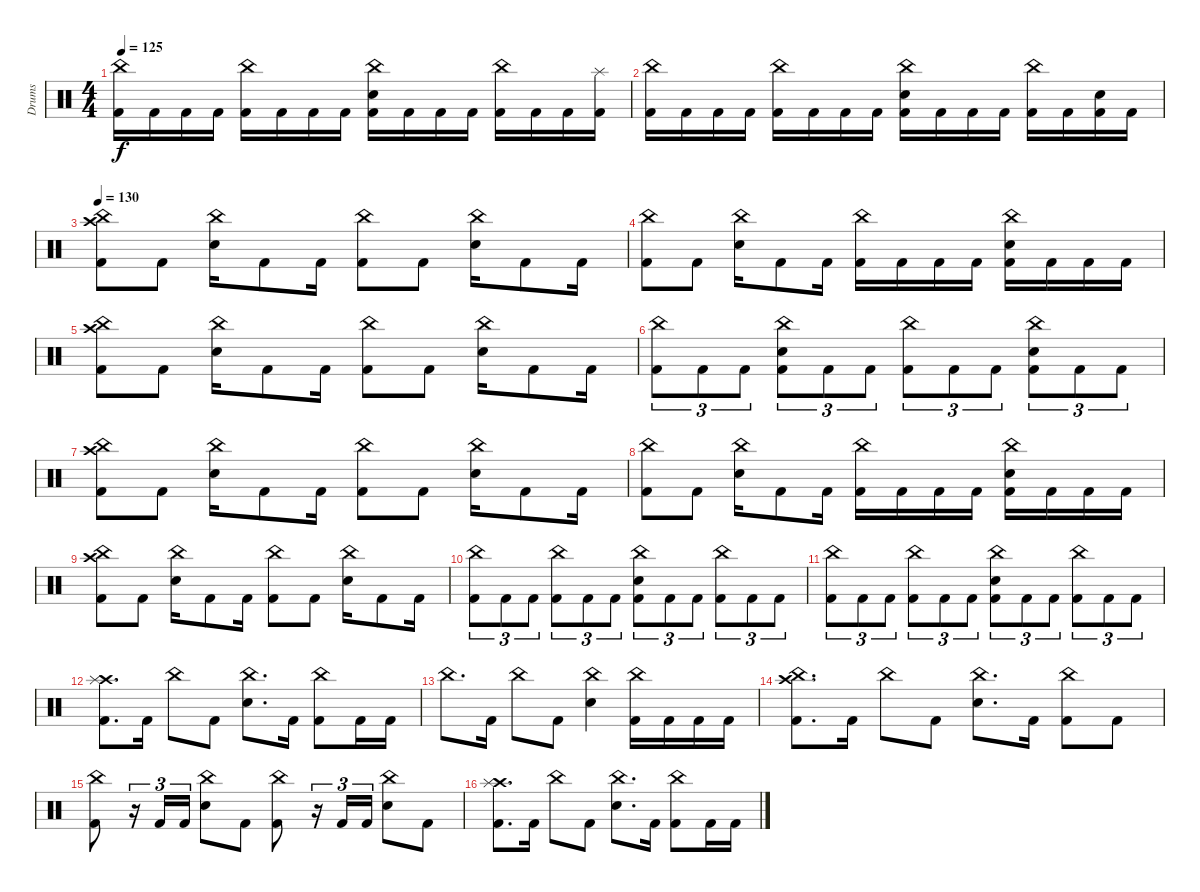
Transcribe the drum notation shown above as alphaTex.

\track ("Drums" "Drums") {instrument percussion}
\staff {score}
\articulation defaults
\ts (4 4)
\tempo 125
\clef neutral
\ks c
("China (hit)" "Kick (hit) 2").16{dy f} "Kick (hit) 2".16 "Kick (hit) 2".16 "Kick (hit) 2".16 ("China (hit)" "Kick (hit) 2").16 "Kick (hit) 2".16 "Kick (hit) 2".16 "Kick (hit) 2".16 ("China (hit)" "Electric Snare (hit)" "Kick (hit) 2").16 "Kick (hit) 2".16 "Kick (hit) 2".16 "Kick (hit) 2".16 ("China (hit)" "Kick (hit) 2").16 "Kick (hit) 2".16 "Kick (hit) 2".16 ("Splash (hit)" "Kick (hit) 2").16 |
("China (hit)" "Kick (hit) 2").16 "Kick (hit) 2".16 "Kick (hit) 2".16 "Kick (hit) 2".16 ("China (hit)" "Kick (hit) 2").16 "Kick (hit) 2".16 "Kick (hit) 2".16 "Kick (hit) 2".16 ("China (hit)" "Electric Snare (hit)" "Kick (hit) 2").16 "Kick (hit) 2".16 "Kick (hit) 2".16 "Kick (hit) 2".16 ("China (hit)" "Kick (hit) 2").16 "Kick (hit) 2".16 ("Electric Snare (hit)" "Kick (hit) 2").16 "Kick (hit) 2".16 |
\tempo 130
("China (hit)" "Crash high (hit)" "Kick (hit) 2").8 "Kick (hit) 2".8 ("China (hit)" "Electric Snare (hit)").16 "Kick (hit) 2".8 "Kick (hit) 2".16 ("China (hit)" "Kick (hit) 2").8 "Kick (hit) 2".8 ("China (hit)" "Electric Snare (hit)").16 "Kick (hit) 2".8 "Kick (hit) 2".16 |
("China (hit)" "Kick (hit) 2").8 "Kick (hit) 2".8 ("China (hit)" "Electric Snare (hit)").16 "Kick (hit) 2".8 "Kick (hit) 2".16 ("China (hit)" "Kick (hit) 2").16 "Kick (hit) 2".16 "Kick (hit) 2".16 "Kick (hit) 2".16 ("China (hit)" "Electric Snare (hit)" "Kick (hit) 2").16 "Kick (hit) 2".16 "Kick (hit) 2".16 "Kick (hit) 2".16 |
("China (hit)" "Crash high (hit)" "Kick (hit) 2").8 "Kick (hit) 2".8 ("China (hit)" "Electric Snare (hit)").16 "Kick (hit) 2".8 "Kick (hit) 2".16 ("China (hit)" "Kick (hit) 2").8 "Kick (hit) 2".8 ("China (hit)" "Electric Snare (hit)").16 "Kick (hit) 2".8 "Kick (hit) 2".16 |
("China (hit)" "Kick (hit) 2").8{tu (3 2)} "Kick (hit) 2".8{tu (3 2)} "Kick (hit) 2".8{tu (3 2)} ("China (hit)" "Electric Snare (hit)" "Kick (hit) 2").8{tu (3 2)} "Kick (hit) 2".8{tu (3 2)} "Kick (hit) 2".8{tu (3 2)} ("China (hit)" "Kick (hit) 2").8{tu (3 2)} "Kick (hit) 2".8{tu (3 2)} "Kick (hit) 2".8{tu (3 2)} ("China (hit)" "Electric Snare (hit)" "Kick (hit) 2").8{tu (3 2)} "Kick (hit) 2".8{tu (3 2)} "Kick (hit) 2".8{tu (3 2)} |
("China (hit)" "Crash high (hit)" "Kick (hit) 2").8 "Kick (hit) 2".8 ("China (hit)" "Electric Snare (hit)").16 "Kick (hit) 2".8 "Kick (hit) 2".16 ("China (hit)" "Kick (hit) 2").8 "Kick (hit) 2".8 ("China (hit)" "Electric Snare (hit)").16 "Kick (hit) 2".8 "Kick (hit) 2".16 |
("China (hit)" "Kick (hit) 2").8 "Kick (hit) 2".8 ("China (hit)" "Electric Snare (hit)").16 "Kick (hit) 2".8 "Kick (hit) 2".16 ("China (hit)" "Kick (hit) 2").16 "Kick (hit) 2".16 "Kick (hit) 2".16 "Kick (hit) 2".16 ("China (hit)" "Electric Snare (hit)" "Kick (hit) 2").16 "Kick (hit) 2".16 "Kick (hit) 2".16 "Kick (hit) 2".16 |
("China (hit)" "Crash high (hit)" "Kick (hit) 2").8 "Kick (hit) 2".8 ("China (hit)" "Electric Snare (hit)").16 "Kick (hit) 2".8 "Kick (hit) 2".16 ("China (hit)" "Kick (hit) 2").8 "Kick (hit) 2".8 ("China (hit)" "Electric Snare (hit)").16 "Kick (hit) 2".8 "Kick (hit) 2".16 |
("China (hit)" "Kick (hit) 2").8{tu (3 2)} "Kick (hit) 2".8{tu (3 2)} "Kick (hit) 2".8{tu (3 2)} ("China (hit)" "Kick (hit) 2").8{tu (3 2)} "Kick (hit) 2".8{tu (3 2)} "Kick (hit) 2".8{tu (3 2)} ("China (hit)" "Electric Snare (hit)" "Kick (hit) 2").8{tu (3 2)} "Kick (hit) 2".8{tu (3 2)} "Kick (hit) 2".8{tu (3 2)} ("China (hit)" "Kick (hit) 2").8{tu (3 2)} "Kick (hit) 2".8{tu (3 2)} "Kick (hit) 2".8{tu (3 2)} |
("China (hit)" "Kick (hit) 2").8{tu (3 2)} "Kick (hit) 2".8{tu (3 2)} "Kick (hit) 2".8{tu (3 2)} ("China (hit)" "Kick (hit) 2").8{tu (3 2)} "Kick (hit) 2".8{tu (3 2)} "Kick (hit) 2".8{tu (3 2)} ("China (hit)" "Electric Snare (hit)" "Kick (hit) 2").8{tu (3 2)} "Kick (hit) 2".8{tu (3 2)} "Kick (hit) 2".8{tu (3 2)} ("China (hit)" "Kick (hit) 2").8{tu (3 2)} "Kick (hit) 2".8{tu (3 2)} "Kick (hit) 2".8{tu (3 2)} |
("Crash high (hit)" "Splash (hit)" "Kick (hit) 2").8{d} "Kick (hit) 2".16 "China (hit)".8 "Kick (hit) 2".8 ("China (hit)" "Electric Snare (hit)").8{d} "Kick (hit) 2".16 ("China (hit)" "Kick (hit) 2").8 "Kick (hit) 2".16 "Kick (hit) 2".16 |
"China (hit)".8{d} "Kick (hit) 2".16 "China (hit)".8 "Kick (hit) 2".8 ("China (hit)" "Electric Snare (hit)").4 ("China (hit)" "Kick (hit) 2").16 "Kick (hit) 2".16 "Kick (hit) 2".16 "Kick (hit) 2".16 |
("China (hit)" "Crash high (hit)" "Kick (hit) 2").8{d} "Kick (hit) 2".16 "China (hit)".8 "Kick (hit) 2".8 ("China (hit)" "Electric Snare (hit)").8{d} "Kick (hit) 2".16 ("China (hit)" "Kick (hit) 2").8 "Kick (hit) 2".8 |
("China (hit)" "Kick (hit) 2").8 r.16{tu (3 2)} "Kick (hit) 2".16{tu (3 2)} "Kick (hit) 2".16{tu (3 2)} ("China (hit)" "Electric Snare (hit)").8 "Kick (hit) 2".8 ("China (hit)" "Kick (hit) 2").8 r.16{tu (3 2)} "Kick (hit) 2".16{tu (3 2)} "Kick (hit) 2".16{tu (3 2)} ("China (hit)" "Electric Snare (hit)").8 "Kick (hit) 2".8 |
("Crash high (hit)" "Splash (hit)" "Kick (hit) 2").8{d} "Kick (hit) 2".16 "China (hit)".8 "Kick (hit) 2".8 ("China (hit)" "Electric Snare (hit)").8{d} "Kick (hit) 2".16 ("China (hit)" "Kick (hit) 2").8 "Kick (hit) 2".16 "Kick (hit) 2".16
